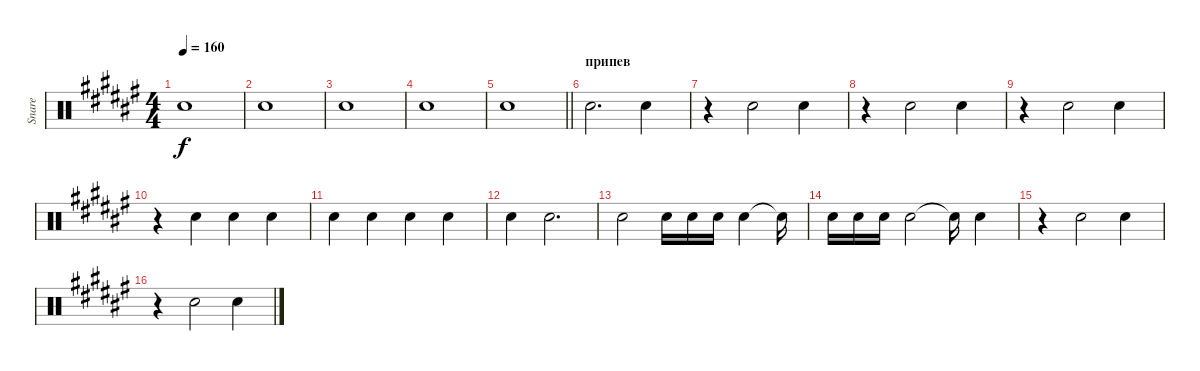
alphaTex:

\track ("Snare" "Snare") {instrument percussion}
\staff {score}
\articulation defaults
\ts (4 4)
\tempo 160
\clef neutral
\ks d#minor "Electric Snare (hit)".1{dy f}
|
"Electric Snare (hit)".1 |
"Electric Snare (hit)".1 |
"Electric Snare (hit)".1 |
\barLineRight lightlight "Electric Snare (hit)".1
|
\section ("" "припев")
"Electric Snare (hit)".2{d} "Electric Snare (hit)".4 |
r.4 "Electric Snare (hit)".2 "Electric Snare (hit)".4 |
r.4 "Electric Snare (hit)".2 "Electric Snare (hit)".4 |
r.4 "Electric Snare (hit)".2 "Electric Snare (hit)".4 |
r.4 "Electric Snare (hit)".4 "Electric Snare (hit)".4 "Electric Snare (hit)".4 |
"Electric Snare (hit)".4 "Electric Snare (hit)".4 "Electric Snare (hit)".4 "Electric Snare (hit)".4 |
"Electric Snare (hit)".4 "Electric Snare (hit)".2{d} |
"Electric Snare (hit)".2 "Electric Snare (hit)".16 "Electric Snare (hit)".16 "Electric Snare (hit)".16 "Electric Snare (hit)".4 "Electric Snare (hit)"{t}.16 |
"Electric Snare (hit)".16 "Electric Snare (hit)".16 "Electric Snare (hit)".16 "Electric Snare (hit)".2 "Electric Snare (hit)"{t}.16 "Electric Snare (hit)".4 |
r.4 "Electric Snare (hit)".2 "Electric Snare (hit)".4 |
r.4 "Electric Snare (hit)".2 "Electric Snare (hit)".4
